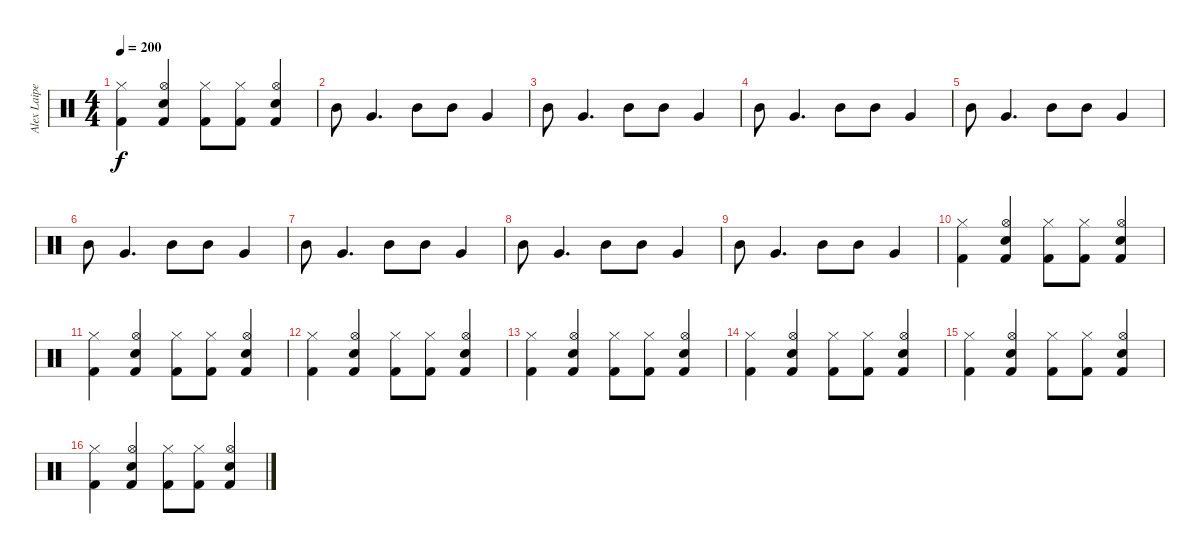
\track ("Alex Laipeneiks - Drums" "Alex Laipe") {instrument percussion}
\staff {score}
\articulation defaults
\ts (4 4)
\tempo 200
\clef neutral
\ks c
("Hi-Hat (closed)" "Kick (hit) 2").4{dy f} ("Hi-Hat (open)" "Snare (hit) 2" "Kick (hit) 2").4 ("Hi-Hat (closed)" "Kick (hit) 2").8 ("Hi-Hat (closed)" "Kick (hit) 2").8 ("Hi-Hat (open)" "Snare (hit) 2" "Kick (hit) 2").4 |
"Mid Tom (hit)".8 "Very Low Tom (hit)".4{d} "Mid Tom (hit)".8 "Mid Tom (hit)".8 "Very Low Tom (hit)".4 |
"Mid Tom (hit)".8 "Very Low Tom (hit)".4{d} "Mid Tom (hit)".8 "Mid Tom (hit)".8 "Very Low Tom (hit)".4 |
"Mid Tom (hit)".8 "Very Low Tom (hit)".4{d} "Mid Tom (hit)".8 "Mid Tom (hit)".8 "Very Low Tom (hit)".4 |
"Mid Tom (hit)".8 "Very Low Tom (hit)".4{d} "Mid Tom (hit)".8 "Mid Tom (hit)".8 "Very Low Tom (hit)".4 |
"Mid Tom (hit)".8 "Very Low Tom (hit)".4{d} "Mid Tom (hit)".8 "Mid Tom (hit)".8 "Very Low Tom (hit)".4 |
"Mid Tom (hit)".8 "Very Low Tom (hit)".4{d} "Mid Tom (hit)".8 "Mid Tom (hit)".8 "Very Low Tom (hit)".4 |
"Mid Tom (hit)".8 "Very Low Tom (hit)".4{d} "Mid Tom (hit)".8 "Mid Tom (hit)".8 "Very Low Tom (hit)".4 |
"Mid Tom (hit)".8 "Very Low Tom (hit)".4{d} "Mid Tom (hit)".8 "Mid Tom (hit)".8 "Very Low Tom (hit)".4 |
("Hi-Hat (closed)" "Kick (hit) 2").4 ("Hi-Hat (open)" "Snare (hit) 2" "Kick (hit) 2").4 ("Hi-Hat (closed)" "Kick (hit) 2").8 ("Hi-Hat (closed)" "Kick (hit) 2").8 ("Hi-Hat (open)" "Snare (hit) 2" "Kick (hit) 2").4 |
("Hi-Hat (closed)" "Kick (hit) 2").4 ("Hi-Hat (open)" "Snare (hit) 2" "Kick (hit) 2").4 ("Hi-Hat (closed)" "Kick (hit) 2").8 ("Hi-Hat (closed)" "Kick (hit) 2").8 ("Hi-Hat (open)" "Snare (hit) 2" "Kick (hit) 2").4 |
("Hi-Hat (closed)" "Kick (hit) 2").4 ("Hi-Hat (open)" "Snare (hit) 2" "Kick (hit) 2").4 ("Hi-Hat (closed)" "Kick (hit) 2").8 ("Hi-Hat (closed)" "Kick (hit) 2").8 ("Hi-Hat (open)" "Snare (hit) 2" "Kick (hit) 2").4 |
("Hi-Hat (closed)" "Kick (hit) 2").4 ("Hi-Hat (open)" "Snare (hit) 2" "Kick (hit) 2").4 ("Hi-Hat (closed)" "Kick (hit) 2").8 ("Hi-Hat (closed)" "Kick (hit) 2").8 ("Hi-Hat (open)" "Snare (hit) 2" "Kick (hit) 2").4 |
("Hi-Hat (closed)" "Kick (hit) 2").4 ("Hi-Hat (open)" "Snare (hit) 2" "Kick (hit) 2").4 ("Hi-Hat (closed)" "Kick (hit) 2").8 ("Hi-Hat (closed)" "Kick (hit) 2").8 ("Hi-Hat (open)" "Snare (hit) 2" "Kick (hit) 2").4 |
("Hi-Hat (closed)" "Kick (hit) 2").4 ("Hi-Hat (open)" "Snare (hit) 2" "Kick (hit) 2").4 ("Hi-Hat (closed)" "Kick (hit) 2").8 ("Hi-Hat (closed)" "Kick (hit) 2").8 ("Hi-Hat (open)" "Snare (hit) 2" "Kick (hit) 2").4 |
("Hi-Hat (closed)" "Kick (hit) 2").4 ("Hi-Hat (open)" "Snare (hit) 2" "Kick (hit) 2").4 ("Hi-Hat (closed)" "Kick (hit) 2").8 ("Hi-Hat (closed)" "Kick (hit) 2").8 ("Hi-Hat (open)" "Snare (hit) 2" "Kick (hit) 2").4
